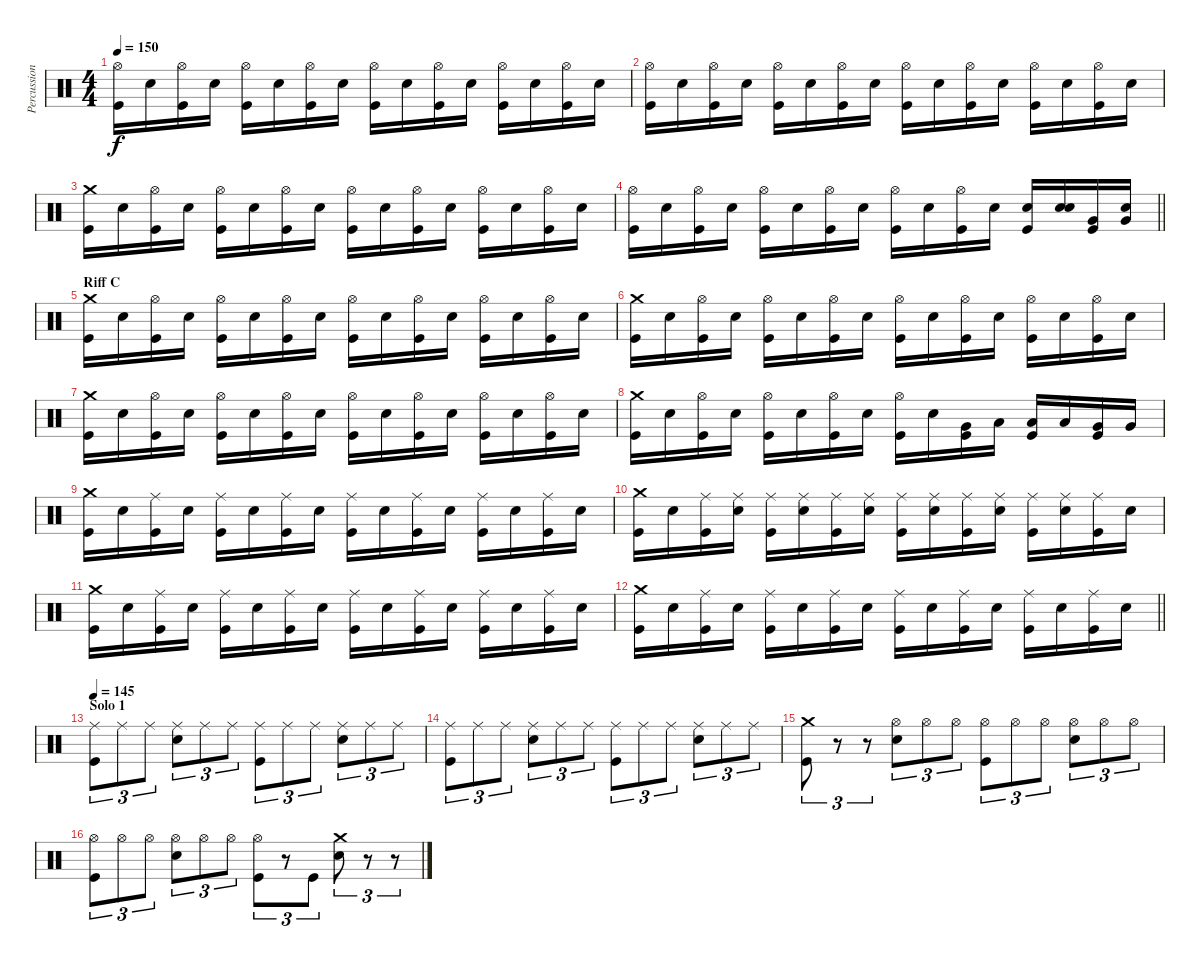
\track ("Percussion" "Percussion") {instrument percussion}
\staff {score}
\articulation defaults
\ts (4 4)
\tempo 150
\clef neutral
\ks c
("Kick (hit)" "Hi-Hat (open)").16{dy f} "Snare (hit) 2".16 ("Kick (hit)" "Hi-Hat (open)").16 "Snare (hit) 2".16 ("Kick (hit)" "Hi-Hat (open)").16 "Snare (hit) 2".16 ("Kick (hit)" "Hi-Hat (open)").16 "Snare (hit) 2".16 ("Kick (hit)" "Hi-Hat (open)").16 "Snare (hit) 2".16 ("Kick (hit)" "Hi-Hat (open)").16 "Snare (hit) 2".16 ("Kick (hit)" "Hi-Hat (open)").16 "Snare (hit) 2".16 ("Kick (hit)" "Hi-Hat (open)").16 "Snare (hit) 2".16 |
("Kick (hit)" "Hi-Hat (open)").16 "Snare (hit) 2".16 ("Kick (hit)" "Hi-Hat (open)").16 "Snare (hit) 2".16 ("Kick (hit)" "Hi-Hat (open)").16 "Snare (hit) 2".16 ("Kick (hit)" "Hi-Hat (open)").16 "Snare (hit) 2".16 ("Kick (hit)" "Hi-Hat (open)").16 "Snare (hit) 2".16 ("Kick (hit)" "Hi-Hat (open)").16 "Snare (hit) 2".16 ("Kick (hit)" "Hi-Hat (open)").16 "Snare (hit) 2".16 ("Kick (hit)" "Hi-Hat (open)").16 "Snare (hit) 2".16 |
("Kick (hit)" "Crash medium (hit)").16 "Snare (hit) 2".16 ("Kick (hit)" "Hi-Hat (open)").16 "Snare (hit) 2".16 ("Kick (hit)" "Hi-Hat (open)").16 "Snare (hit) 2".16 ("Kick (hit)" "Hi-Hat (open)").16 "Snare (hit) 2".16 ("Kick (hit)" "Hi-Hat (open)").16 "Snare (hit) 2".16 ("Kick (hit)" "Hi-Hat (open)").16 "Snare (hit) 2".16 ("Kick (hit)" "Hi-Hat (open)").16 "Snare (hit) 2".16 ("Kick (hit)" "Hi-Hat (open)").16 "Snare (hit) 2".16 |
\barLineRight lightlight
("Kick (hit)" "Hi-Hat (open)").16 "Snare (hit) 2".16 ("Kick (hit)" "Hi-Hat (open)").16 "Snare (hit) 2".16 ("Kick (hit)" "Hi-Hat (open)").16 "Snare (hit) 2".16 ("Kick (hit)" "Hi-Hat (open)").16 "Snare (hit) 2".16 ("Kick (hit)" "Hi-Hat (open)").16 "Snare (hit) 2".16 ("Kick (hit)" "Hi-Hat (open)").16 "Snare (hit) 2".16 ("Kick (hit)" "Snare (hit) 2").16 ("Snare (hit) 2" "Snare (hit) 2").16 ("Kick (hit)" "Very Low Tom (hit)").16 ("Snare (hit) 2" "Very Low Tom (hit)").16 |
\section ("" "Riff C")
("Kick (hit)" "Crash medium (hit)").16 "Snare (hit) 2".16 ("Kick (hit)" "Hi-Hat (open)").16 "Snare (hit) 2".16 ("Kick (hit)" "Hi-Hat (open)").16 "Snare (hit) 2".16 ("Kick (hit)" "Hi-Hat (open)").16 "Snare (hit) 2".16 ("Kick (hit)" "Hi-Hat (open)").16 "Snare (hit) 2".16 ("Kick (hit)" "Hi-Hat (open)").16 "Snare (hit) 2".16 ("Kick (hit)" "Hi-Hat (open)").16 "Snare (hit) 2".16 ("Kick (hit)" "Hi-Hat (open)").16 "Snare (hit) 2".16 |
("Kick (hit)" "Crash medium (hit)").16 "Snare (hit) 2".16 ("Kick (hit)" "Hi-Hat (open)").16 "Snare (hit) 2".16 ("Kick (hit)" "Hi-Hat (open)").16 "Snare (hit) 2".16 ("Kick (hit)" "Hi-Hat (open)").16 "Snare (hit) 2".16 ("Kick (hit)" "Hi-Hat (open)").16 "Snare (hit) 2".16 ("Kick (hit)" "Hi-Hat (open)").16 "Snare (hit) 2".16 ("Kick (hit)" "Hi-Hat (open)").16 "Snare (hit) 2".16 ("Kick (hit)" "Hi-Hat (open)").16 "Snare (hit) 2".16 |
("Kick (hit)" "Crash medium (hit)").16 "Snare (hit) 2".16 ("Kick (hit)" "Hi-Hat (open)").16 "Snare (hit) 2".16 ("Kick (hit)" "Hi-Hat (open)").16 "Snare (hit) 2".16 ("Kick (hit)" "Hi-Hat (open)").16 "Snare (hit) 2".16 ("Kick (hit)" "Hi-Hat (open)").16 "Snare (hit) 2".16 ("Kick (hit)" "Hi-Hat (open)").16 "Snare (hit) 2".16 ("Kick (hit)" "Hi-Hat (open)").16 "Snare (hit) 2".16 ("Kick (hit)" "Hi-Hat (open)").16 "Snare (hit) 2".16 |
("Kick (hit)" "Crash medium (hit)").16 "Snare (hit) 2".16 ("Kick (hit)" "Hi-Hat (open)").16 "Snare (hit) 2".16 ("Kick (hit)" "Hi-Hat (open)").16 "Snare (hit) 2".16 ("Kick (hit)" "Hi-Hat (open)").16 "Snare (hit) 2".16 ("Kick (hit)" "Hi-Hat (open)").16 "Snare (hit) 2".16 ("Kick (hit)" "Very Low Tom (hit)").16 "Low Tom (hit)".16 ("Kick (hit)" "Low Tom (hit)").16 "Low Tom (hit)".16 ("Kick (hit)" "Very Low Tom (hit)").16 "Very Low Tom (hit)".16 |
("Kick (hit)" "Crash medium (hit)").16 "Snare (hit) 2".16 ("Kick (hit)" "Ride (middle)").16 "Snare (hit) 2".16 ("Kick (hit)" "Ride (middle)").16 "Snare (hit) 2".16 ("Kick (hit)" "Ride (middle)").16 "Snare (hit) 2".16 ("Kick (hit)" "Ride (middle)").16 "Snare (hit) 2".16 ("Kick (hit)" "Ride (middle)").16 "Snare (hit) 2".16 ("Kick (hit)" "Ride (middle)").16 "Snare (hit) 2".16 ("Kick (hit)" "Ride (middle)").16 "Snare (hit) 2".16 |
("Kick (hit)" "Crash medium (hit)").16 "Snare (hit) 2".16 ("Kick (hit)" "Ride (middle)").16 ("Snare (hit) 2" "Ride (middle)").16 ("Kick (hit)" "Ride (middle)").16 ("Snare (hit) 2" "Ride (middle)").16 ("Kick (hit)" "Ride (middle)").16 ("Snare (hit) 2" "Ride (middle)").16 ("Kick (hit)" "Ride (middle)").16 ("Snare (hit) 2" "Ride (middle)").16 ("Kick (hit)" "Ride (middle)").16 ("Snare (hit) 2" "Ride (middle)").16 ("Kick (hit)" "Ride (middle)").16 ("Snare (hit) 2" "Ride (middle)").16 ("Kick (hit)" "Ride (middle)").16 "Snare (hit) 2".16 |
("Kick (hit)" "Crash medium (hit)").16 "Snare (hit) 2".16 ("Kick (hit)" "Ride (middle)").16 "Snare (hit) 2".16 ("Kick (hit)" "Ride (middle)").16 "Snare (hit) 2".16 ("Kick (hit)" "Ride (middle)").16 "Snare (hit) 2".16 ("Kick (hit)" "Ride (middle)").16 "Snare (hit) 2".16 ("Kick (hit)" "Ride (middle)").16 "Snare (hit) 2".16 ("Kick (hit)" "Ride (middle)").16 "Snare (hit) 2".16 ("Kick (hit)" "Ride (middle)").16 "Snare (hit) 2".16 |
\barLineRight lightlight
("Kick (hit)" "Crash medium (hit)").16 "Snare (hit) 2".16 ("Kick (hit)" "Ride (middle)").16 "Snare (hit) 2".16 ("Kick (hit)" "Ride (middle)").16 "Snare (hit) 2".16 ("Kick (hit)" "Ride (middle)").16 "Snare (hit) 2".16 ("Kick (hit)" "Ride (middle)").16 "Snare (hit) 2".16 ("Kick (hit)" "Ride (middle)").16 "Snare (hit) 2".16 ("Kick (hit)" "Ride (middle)").16 "Snare (hit) 2".16 ("Kick (hit)" "Ride (middle)").16 "Snare (hit) 2".16 |
\section ("" "Solo 1")
\tempo 145
("Kick (hit)" "Ride (middle)").8{tu (3 2)} "Ride (middle)".8{tu (3 2)} "Ride (middle)".8{tu (3 2)} ("Snare (hit) 2" "Ride (middle)").8{tu (3 2)} "Ride (middle)".8{tu (3 2)} "Ride (middle)".8{tu (3 2)} ("Kick (hit)" "Ride (middle)").8{tu (3 2)} "Ride (middle)".8{tu (3 2)} "Ride (middle)".8{tu (3 2)} ("Snare (hit) 2" "Ride (middle)").8{tu (3 2)} "Ride (middle)".8{tu (3 2)} "Ride (middle)".8{tu (3 2)} |
("Kick (hit)" "Ride (middle)").8{tu (3 2)} "Ride (middle)".8{tu (3 2)} "Ride (middle)".8{tu (3 2)} ("Snare (hit) 2" "Ride (middle)").8{tu (3 2)} "Ride (middle)".8{tu (3 2)} "Ride (middle)".8{tu (3 2)} ("Kick (hit)" "Ride (middle)").8{tu (3 2)} "Ride (middle)".8{tu (3 2)} "Ride (middle)".8{tu (3 2)} ("Snare (hit) 2" "Ride (middle)").8{tu (3 2)} "Ride (middle)".8{tu (3 2)} "Ride (middle)".8{tu (3 2)} |
("Kick (hit)" "Crash medium (hit)").8{tu (3 2)} r.8{tu (3 2)} r.8{tu (3 2)} ("Snare (hit) 2" "Hi-Hat (open)").8{tu (3 2)} "Hi-Hat (open)".8{tu (3 2)} "Hi-Hat (open)".8{tu (3 2)} ("Kick (hit)" "Hi-Hat (open)").8{tu (3 2)} "Hi-Hat (open)".8{tu (3 2)} "Hi-Hat (open)".8{tu (3 2)} ("Snare (hit) 2" "Hi-Hat (open)").8{tu (3 2)} "Hi-Hat (open)".8{tu (3 2)} "Hi-Hat (open)".8{tu (3 2)} |
("Kick (hit)" "Hi-Hat (open)").8{tu (3 2)} "Hi-Hat (open)".8{tu (3 2)} "Hi-Hat (open)".8{tu (3 2)} ("Snare (hit) 2" "Hi-Hat (open)").8{tu (3 2)} "Hi-Hat (open)".8{tu (3 2)} "Hi-Hat (open)".8{tu (3 2)} ("Kick (hit)" "Hi-Hat (open)").8{tu (3 2)} r.8{tu (3 2)} "Kick (hit)".8{tu (3 2)} ("Snare (hit) 2" "Crash medium (hit)").8{tu (3 2)} r.8{tu (3 2)} r.8{tu (3 2)}
